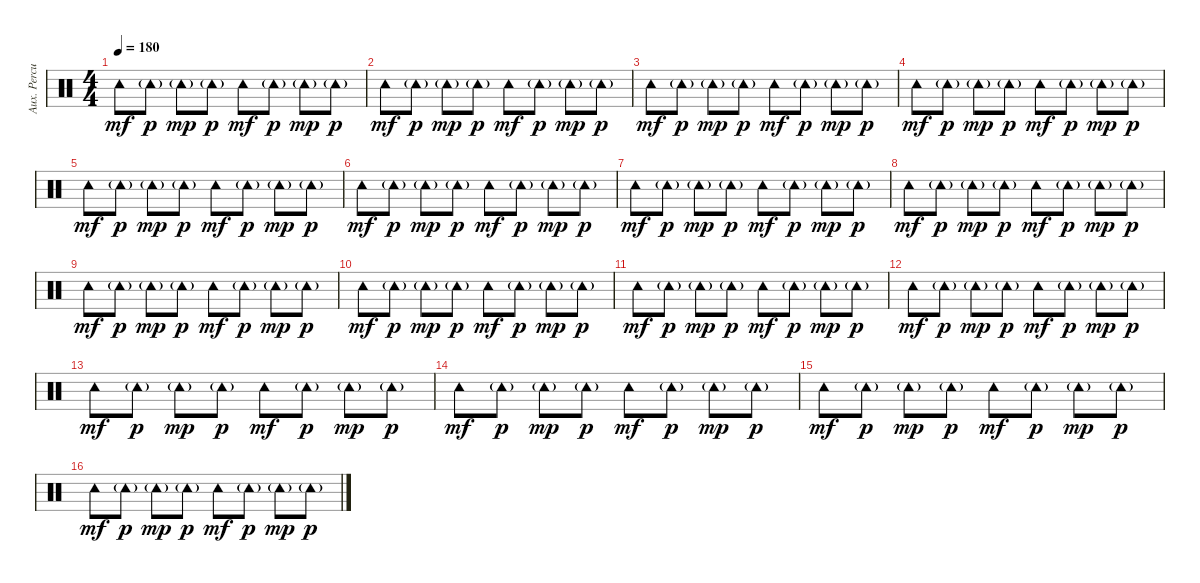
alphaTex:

\track ("Aux. Percussion" "Aux. Percu") {instrument percussion}
\staff {score}
\articulation defaults
\ts (4 4)
\tempo 180
\clef neutral
\ks c "Tambourine (hit)".8{dy mf} "Tambourine (hit)"{g}.8{dy p} "Tambourine (hit)"{g}.8{dy mp} "Tambourine (hit)"{g}.8{dy p} "Tambourine (hit)".8{dy mf} "Tambourine (hit)"{g}.8{dy p} "Tambourine (hit)"{g}.8{dy mp} "Tambourine (hit)"{g}.8{dy p}
|
"Tambourine (hit)".8{dy mf} "Tambourine (hit)"{g}.8{dy p} "Tambourine (hit)"{g}.8{dy mp} "Tambourine (hit)"{g}.8{dy p} "Tambourine (hit)".8{dy mf} "Tambourine (hit)"{g}.8{dy p} "Tambourine (hit)"{g}.8{dy mp} "Tambourine (hit)"{g}.8{dy p} |
"Tambourine (hit)".8{dy mf} "Tambourine (hit)"{g}.8{dy p} "Tambourine (hit)"{g}.8{dy mp} "Tambourine (hit)"{g}.8{dy p} "Tambourine (hit)".8{dy mf} "Tambourine (hit)"{g}.8{dy p} "Tambourine (hit)"{g}.8{dy mp} "Tambourine (hit)"{g}.8{dy p} |
"Tambourine (hit)".8{dy mf} "Tambourine (hit)"{g}.8{dy p} "Tambourine (hit)"{g}.8{dy mp} "Tambourine (hit)"{g}.8{dy p} "Tambourine (hit)".8{dy mf} "Tambourine (hit)"{g}.8{dy p} "Tambourine (hit)"{g}.8{dy mp} "Tambourine (hit)"{g}.8{dy p} |
"Tambourine (hit)".8{dy mf} "Tambourine (hit)"{g}.8{dy p} "Tambourine (hit)"{g}.8{dy mp} "Tambourine (hit)"{g}.8{dy p} "Tambourine (hit)".8{dy mf} "Tambourine (hit)"{g}.8{dy p} "Tambourine (hit)"{g}.8{dy mp} "Tambourine (hit)"{g}.8{dy p} |
"Tambourine (hit)".8{dy mf} "Tambourine (hit)"{g}.8{dy p} "Tambourine (hit)"{g}.8{dy mp} "Tambourine (hit)"{g}.8{dy p} "Tambourine (hit)".8{dy mf} "Tambourine (hit)"{g}.8{dy p} "Tambourine (hit)"{g}.8{dy mp} "Tambourine (hit)"{g}.8{dy p} |
"Tambourine (hit)".8{dy mf} "Tambourine (hit)"{g}.8{dy p} "Tambourine (hit)"{g}.8{dy mp} "Tambourine (hit)"{g}.8{dy p} "Tambourine (hit)".8{dy mf} "Tambourine (hit)"{g}.8{dy p} "Tambourine (hit)"{g}.8{dy mp} "Tambourine (hit)"{g}.8{dy p} |
"Tambourine (hit)".8{dy mf} "Tambourine (hit)"{g}.8{dy p} "Tambourine (hit)"{g}.8{dy mp} "Tambourine (hit)"{g}.8{dy p} "Tambourine (hit)".8{dy mf} "Tambourine (hit)"{g}.8{dy p} "Tambourine (hit)"{g}.8{dy mp} "Tambourine (hit)"{g}.8{dy p} |
"Tambourine (hit)".8{dy mf} "Tambourine (hit)"{g}.8{dy p} "Tambourine (hit)"{g}.8{dy mp} "Tambourine (hit)"{g}.8{dy p} "Tambourine (hit)".8{dy mf} "Tambourine (hit)"{g}.8{dy p} "Tambourine (hit)"{g}.8{dy mp} "Tambourine (hit)"{g}.8{dy p} |
"Tambourine (hit)".8{dy mf} "Tambourine (hit)"{g}.8{dy p} "Tambourine (hit)"{g}.8{dy mp} "Tambourine (hit)"{g}.8{dy p} "Tambourine (hit)".8{dy mf} "Tambourine (hit)"{g}.8{dy p} "Tambourine (hit)"{g}.8{dy mp} "Tambourine (hit)"{g}.8{dy p} |
"Tambourine (hit)".8{dy mf} "Tambourine (hit)"{g}.8{dy p} "Tambourine (hit)"{g}.8{dy mp} "Tambourine (hit)"{g}.8{dy p} "Tambourine (hit)".8{dy mf} "Tambourine (hit)"{g}.8{dy p} "Tambourine (hit)"{g}.8{dy mp} "Tambourine (hit)"{g}.8{dy p} |
"Tambourine (hit)".8{dy mf} "Tambourine (hit)"{g}.8{dy p} "Tambourine (hit)"{g}.8{dy mp} "Tambourine (hit)"{g}.8{dy p} "Tambourine (hit)".8{dy mf} "Tambourine (hit)"{g}.8{dy p} "Tambourine (hit)"{g}.8{dy mp} "Tambourine (hit)"{g}.8{dy p} |
"Tambourine (hit)".8{dy mf} "Tambourine (hit)"{g}.8{dy p} "Tambourine (hit)"{g}.8{dy mp} "Tambourine (hit)"{g}.8{dy p} "Tambourine (hit)".8{dy mf} "Tambourine (hit)"{g}.8{dy p} "Tambourine (hit)"{g}.8{dy mp} "Tambourine (hit)"{g}.8{dy p} |
"Tambourine (hit)".8{dy mf} "Tambourine (hit)"{g}.8{dy p} "Tambourine (hit)"{g}.8{dy mp} "Tambourine (hit)"{g}.8{dy p} "Tambourine (hit)".8{dy mf} "Tambourine (hit)"{g}.8{dy p} "Tambourine (hit)"{g}.8{dy mp} "Tambourine (hit)"{g}.8{dy p} |
"Tambourine (hit)".8{dy mf} "Tambourine (hit)"{g}.8{dy p} "Tambourine (hit)"{g}.8{dy mp} "Tambourine (hit)"{g}.8{dy p} "Tambourine (hit)".8{dy mf} "Tambourine (hit)"{g}.8{dy p} "Tambourine (hit)"{g}.8{dy mp} "Tambourine (hit)"{g}.8{dy p} |
"Tambourine (hit)".8{dy mf} "Tambourine (hit)"{g}.8{dy p} "Tambourine (hit)"{g}.8{dy mp} "Tambourine (hit)"{g}.8{dy p} "Tambourine (hit)".8{dy mf} "Tambourine (hit)"{g}.8{dy p} "Tambourine (hit)"{g}.8{dy mp} "Tambourine (hit)"{g}.8{dy p}
